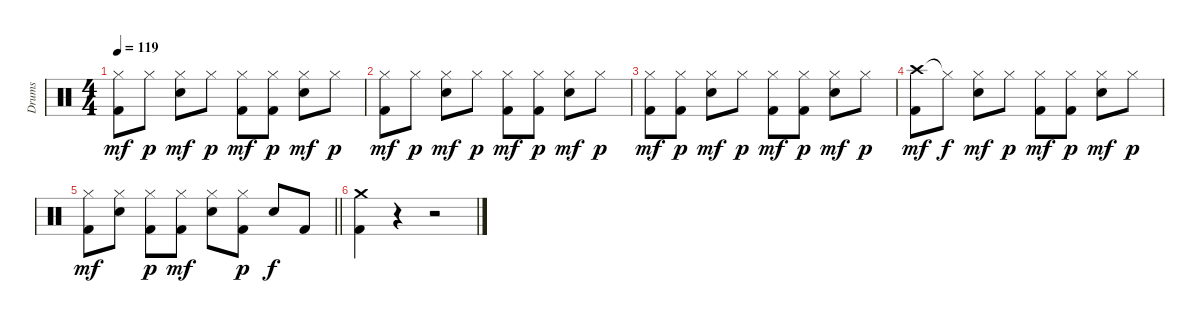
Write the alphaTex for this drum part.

\track ("Drums" "Drums") {instrument percussion}
\staff {score}
\articulation defaults
\ts (4 4)
\tempo 119
\clef neutral
\ks c
("Hi-Hat (closed)" "Kick (hit) 2").8{dy mf} "Hi-Hat (closed)".8{dy p} ("Hi-Hat (closed)" "Electric Snare (hit)").8{dy mf} "Hi-Hat (closed)".8{dy p} ("Hi-Hat (closed)" "Kick (hit) 2").8{dy mf} ("Hi-Hat (closed)" "Kick (hit) 2").8{dy p} ("Hi-Hat (closed)" "Electric Snare (hit)").8{dy mf} "Hi-Hat (closed)".8{dy p} |
("Hi-Hat (closed)" "Kick (hit) 2").8{dy mf} "Hi-Hat (closed)".8{dy p} ("Hi-Hat (closed)" "Electric Snare (hit)").8{dy mf} "Hi-Hat (closed)".8{dy p} ("Hi-Hat (closed)" "Kick (hit) 2").8{dy mf} ("Hi-Hat (closed)" "Kick (hit) 2").8{dy p} ("Hi-Hat (closed)" "Electric Snare (hit)").8{dy mf} "Hi-Hat (closed)".8{dy p} |
("Hi-Hat (closed)" "Kick (hit) 2").8{dy mf} ("Hi-Hat (closed)" "Kick (hit) 2").8{dy p} ("Hi-Hat (closed)" "Electric Snare (hit)").8{dy mf} "Hi-Hat (closed)".8{dy p} ("Hi-Hat (closed)" "Kick (hit) 2").8{dy mf} ("Hi-Hat (closed)" "Kick (hit) 2").8{dy p} ("Hi-Hat (closed)" "Electric Snare (hit)").8{dy mf} "Hi-Hat (closed)".8{dy p} |
("Crash high (hit)" "Kick (hit) 2").8{dy mf} "Hi-Hat (closed)"{t}.8{dy f} ("Hi-Hat (closed)" "Electric Snare (hit)").8{dy mf} "Hi-Hat (closed)".8{dy p} ("Hi-Hat (closed)" "Kick (hit) 2").8{dy mf} ("Hi-Hat (closed)" "Kick (hit) 2").8{dy p} ("Hi-Hat (closed)" "Electric Snare (hit)").8{dy mf} "Hi-Hat (closed)".8{dy p} |
\barLineRight lightlight
("Hi-Hat (closed)" "Kick (hit) 2").8{dy mf} ("Hi-Hat (closed)" "Electric Snare (hit)").8 ("Hi-Hat (closed)" "Kick (hit) 2").8{dy p} ("Hi-Hat (closed)" "Kick (hit) 2").8{dy mf} ("Hi-Hat (closed)" "Electric Snare (hit)").8 ("Hi-Hat (closed)" "Kick (hit) 2").8{dy p} "Electric Snare (hit)".8{dy f} "Kick (hit) 2".8 |
("Crash medium (hit)" "Kick (hit) 2").4 r.4 r.2
